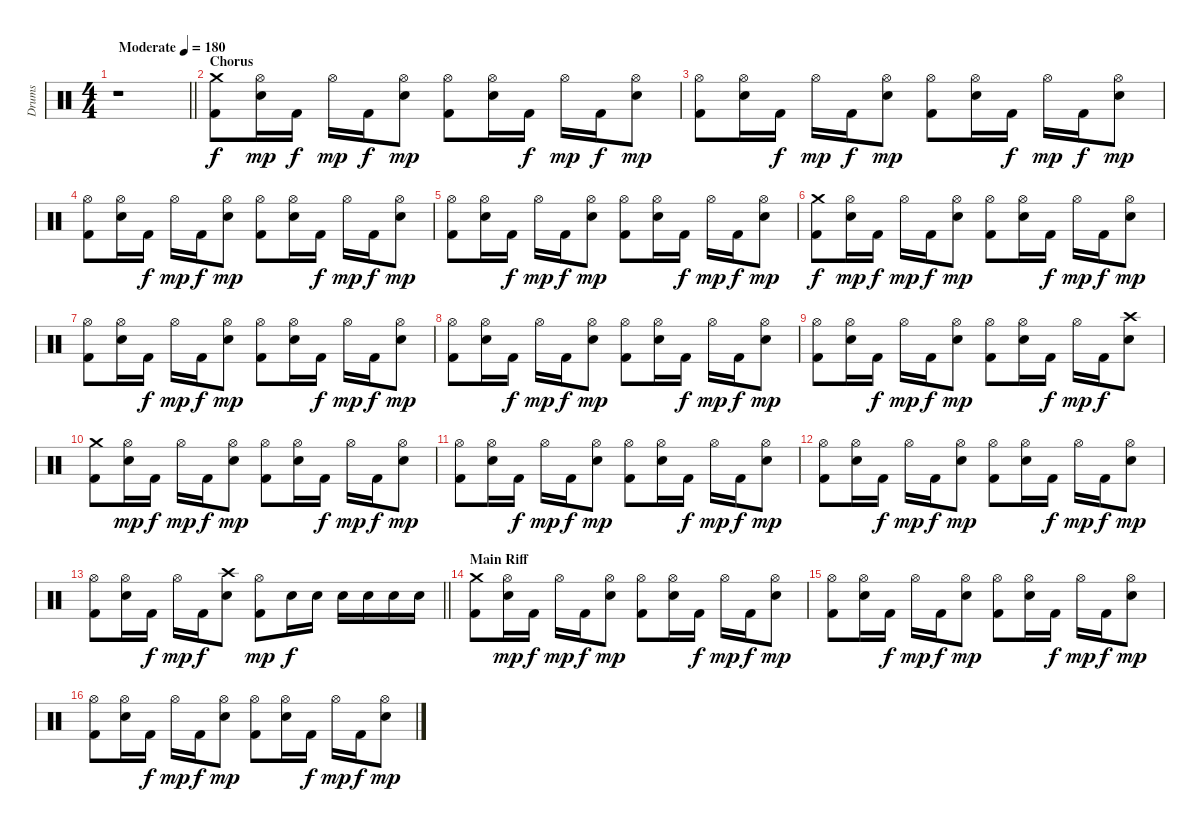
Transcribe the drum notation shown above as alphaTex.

\track ("Drums" "Drums") {instrument percussion}
\staff {score}
\articulation defaults
\ts (4 4)
\tempo (180 "Moderate")
\clef neutral
\barLineRight lightlight
\ks c
r.1{dy f} |
\section ("" "Chorus")
("Crash medium (hit)" "Kick (hit) 2").8 ("Hi-Hat (open)" "Snare (hit) 2").16{dy mp} "Kick (hit) 2".16{dy f} "Hi-Hat (open)".16{dy mp} "Kick (hit) 2".16{dy f} ("Hi-Hat (open)" "Snare (hit) 2").8{dy mp} ("Hi-Hat (open)" "Kick (hit) 2").8 ("Hi-Hat (open)" "Snare (hit) 2").16 "Kick (hit) 2".16{dy f} "Hi-Hat (open)".16{dy mp} "Kick (hit) 2".16{dy f} ("Hi-Hat (open)" "Snare (hit) 2").8{dy mp} |
("Hi-Hat (open)" "Kick (hit) 2").8 ("Hi-Hat (open)" "Snare (hit) 2").16 "Kick (hit) 2".16{dy f} "Hi-Hat (open)".16{dy mp} "Kick (hit) 2".16{dy f} ("Hi-Hat (open)" "Snare (hit) 2").8{dy mp} ("Hi-Hat (open)" "Kick (hit) 2").8 ("Hi-Hat (open)" "Snare (hit) 2").16 "Kick (hit) 2".16{dy f} "Hi-Hat (open)".16{dy mp} "Kick (hit) 2".16{dy f} ("Hi-Hat (open)" "Snare (hit) 2").8{dy mp} |
("Hi-Hat (open)" "Kick (hit) 2").8 ("Hi-Hat (open)" "Snare (hit) 2").16 "Kick (hit) 2".16{dy f} "Hi-Hat (open)".16{dy mp} "Kick (hit) 2".16{dy f} ("Hi-Hat (open)" "Snare (hit) 2").8{dy mp} ("Hi-Hat (open)" "Kick (hit) 2").8 ("Hi-Hat (open)" "Snare (hit) 2").16 "Kick (hit) 2".16{dy f} "Hi-Hat (open)".16{dy mp} "Kick (hit) 2".16{dy f} ("Hi-Hat (open)" "Snare (hit) 2").8{dy mp} |
("Hi-Hat (open)" "Kick (hit) 2").8 ("Hi-Hat (open)" "Snare (hit) 2").16 "Kick (hit) 2".16{dy f} "Hi-Hat (open)".16{dy mp} "Kick (hit) 2".16{dy f} ("Hi-Hat (open)" "Snare (hit) 2").8{dy mp} ("Hi-Hat (open)" "Kick (hit) 2").8 ("Hi-Hat (open)" "Snare (hit) 2").16 "Kick (hit) 2".16{dy f} "Hi-Hat (open)".16{dy mp} "Kick (hit) 2".16{dy f} ("Hi-Hat (open)" "Snare (hit) 2").8{dy mp} |
("Crash medium (hit)" "Kick (hit) 2").8{dy f} ("Hi-Hat (open)" "Snare (hit) 2").16{dy mp} "Kick (hit) 2".16{dy f} "Hi-Hat (open)".16{dy mp} "Kick (hit) 2".16{dy f} ("Hi-Hat (open)" "Snare (hit) 2").8{dy mp} ("Hi-Hat (open)" "Kick (hit) 2").8 ("Hi-Hat (open)" "Snare (hit) 2").16 "Kick (hit) 2".16{dy f} "Hi-Hat (open)".16{dy mp} "Kick (hit) 2".16{dy f} ("Hi-Hat (open)" "Snare (hit) 2").8{dy mp} |
("Hi-Hat (open)" "Kick (hit) 2").8 ("Hi-Hat (open)" "Snare (hit) 2").16 "Kick (hit) 2".16{dy f} "Hi-Hat (open)".16{dy mp} "Kick (hit) 2".16{dy f} ("Hi-Hat (open)" "Snare (hit) 2").8{dy mp} ("Hi-Hat (open)" "Kick (hit) 2").8 ("Hi-Hat (open)" "Snare (hit) 2").16 "Kick (hit) 2".16{dy f} "Hi-Hat (open)".16{dy mp} "Kick (hit) 2".16{dy f} ("Hi-Hat (open)" "Snare (hit) 2").8{dy mp} |
("Hi-Hat (open)" "Kick (hit) 2").8 ("Hi-Hat (open)" "Snare (hit) 2").16 "Kick (hit) 2".16{dy f} "Hi-Hat (open)".16{dy mp} "Kick (hit) 2".16{dy f} ("Hi-Hat (open)" "Snare (hit) 2").8{dy mp} ("Hi-Hat (open)" "Kick (hit) 2").8 ("Hi-Hat (open)" "Snare (hit) 2").16 "Kick (hit) 2".16{dy f} "Hi-Hat (open)".16{dy mp} "Kick (hit) 2".16{dy f} ("Hi-Hat (open)" "Snare (hit) 2").8{dy mp} |
("Hi-Hat (open)" "Kick (hit) 2").8 ("Hi-Hat (open)" "Snare (hit) 2").16 "Kick (hit) 2".16{dy f} "Hi-Hat (open)".16{dy mp} "Kick (hit) 2".16{dy f} ("Hi-Hat (open)" "Snare (hit) 2").8{dy mp} ("Hi-Hat (open)" "Kick (hit) 2").8 ("Hi-Hat (open)" "Snare (hit) 2").16 "Kick (hit) 2".16{dy f} "Hi-Hat (open)".16{dy mp} "Kick (hit) 2".16{dy f} ("Crash high (hit)" "Snare (hit) 2").8 |
("Crash medium (hit)" "Kick (hit) 2").8 ("Hi-Hat (open)" "Snare (hit) 2").16{dy mp} "Kick (hit) 2".16{dy f} "Hi-Hat (open)".16{dy mp} "Kick (hit) 2".16{dy f} ("Hi-Hat (open)" "Snare (hit) 2").8{dy mp} ("Hi-Hat (open)" "Kick (hit) 2").8 ("Hi-Hat (open)" "Snare (hit) 2").16 "Kick (hit) 2".16{dy f} "Hi-Hat (open)".16{dy mp} "Kick (hit) 2".16{dy f} ("Hi-Hat (open)" "Snare (hit) 2").8{dy mp} |
("Hi-Hat (open)" "Kick (hit) 2").8 ("Hi-Hat (open)" "Snare (hit) 2").16 "Kick (hit) 2".16{dy f} "Hi-Hat (open)".16{dy mp} "Kick (hit) 2".16{dy f} ("Hi-Hat (open)" "Snare (hit) 2").8{dy mp} ("Hi-Hat (open)" "Kick (hit) 2").8 ("Hi-Hat (open)" "Snare (hit) 2").16 "Kick (hit) 2".16{dy f} "Hi-Hat (open)".16{dy mp} "Kick (hit) 2".16{dy f} ("Hi-Hat (open)" "Snare (hit) 2").8{dy mp} |
("Hi-Hat (open)" "Kick (hit) 2").8 ("Hi-Hat (open)" "Snare (hit) 2").16 "Kick (hit) 2".16{dy f} "Hi-Hat (open)".16{dy mp} "Kick (hit) 2".16{dy f} ("Hi-Hat (open)" "Snare (hit) 2").8{dy mp} ("Hi-Hat (open)" "Kick (hit) 2").8 ("Hi-Hat (open)" "Snare (hit) 2").16 "Kick (hit) 2".16{dy f} "Hi-Hat (open)".16{dy mp} "Kick (hit) 2".16{dy f} ("Hi-Hat (open)" "Snare (hit) 2").8{dy mp} |
\barLineRight lightlight
("Hi-Hat (open)" "Kick (hit) 2").8 ("Hi-Hat (open)" "Snare (hit) 2").16 "Kick (hit) 2".16{dy f} "Hi-Hat (open)".16{dy mp} "Kick (hit) 2".16{dy f} ("Crash high (hit)" "Snare (hit) 2").8 ("Hi-Hat (open)" "Kick (hit) 2").8{dy mp} "Snare (hit) 2".16{dy f} "Snare (hit) 2".16 "Snare (hit) 2".16 "Snare (hit) 2".16 "Snare (hit) 2".16 "Snare (hit) 2".16 |
\section ("" "Main Riff")
("Crash medium (hit)" "Kick (hit) 2").8 ("Hi-Hat (open)" "Snare (hit) 2").16{dy mp} "Kick (hit) 2".16{dy f} "Hi-Hat (open)".16{dy mp} "Kick (hit) 2".16{dy f} ("Hi-Hat (open)" "Snare (hit) 2").8{dy mp} ("Hi-Hat (open)" "Kick (hit) 2").8 ("Hi-Hat (open)" "Snare (hit) 2").16 "Kick (hit) 2".16{dy f} "Hi-Hat (open)".16{dy mp} "Kick (hit) 2".16{dy f} ("Hi-Hat (open)" "Snare (hit) 2").8{dy mp} |
("Hi-Hat (open)" "Kick (hit) 2").8 ("Hi-Hat (open)" "Snare (hit) 2").16 "Kick (hit) 2".16{dy f} "Hi-Hat (open)".16{dy mp} "Kick (hit) 2".16{dy f} ("Hi-Hat (open)" "Snare (hit) 2").8{dy mp} ("Hi-Hat (open)" "Kick (hit) 2").8 ("Hi-Hat (open)" "Snare (hit) 2").16 "Kick (hit) 2".16{dy f} "Hi-Hat (open)".16{dy mp} "Kick (hit) 2".16{dy f} ("Hi-Hat (open)" "Snare (hit) 2").8{dy mp} |
("Hi-Hat (open)" "Kick (hit) 2").8 ("Hi-Hat (open)" "Snare (hit) 2").16 "Kick (hit) 2".16{dy f} "Hi-Hat (open)".16{dy mp} "Kick (hit) 2".16{dy f} ("Hi-Hat (open)" "Snare (hit) 2").8{dy mp} ("Hi-Hat (open)" "Kick (hit) 2").8 ("Hi-Hat (open)" "Snare (hit) 2").16 "Kick (hit) 2".16{dy f} "Hi-Hat (open)".16{dy mp} "Kick (hit) 2".16{dy f} ("Hi-Hat (open)" "Snare (hit) 2").8{dy mp}
